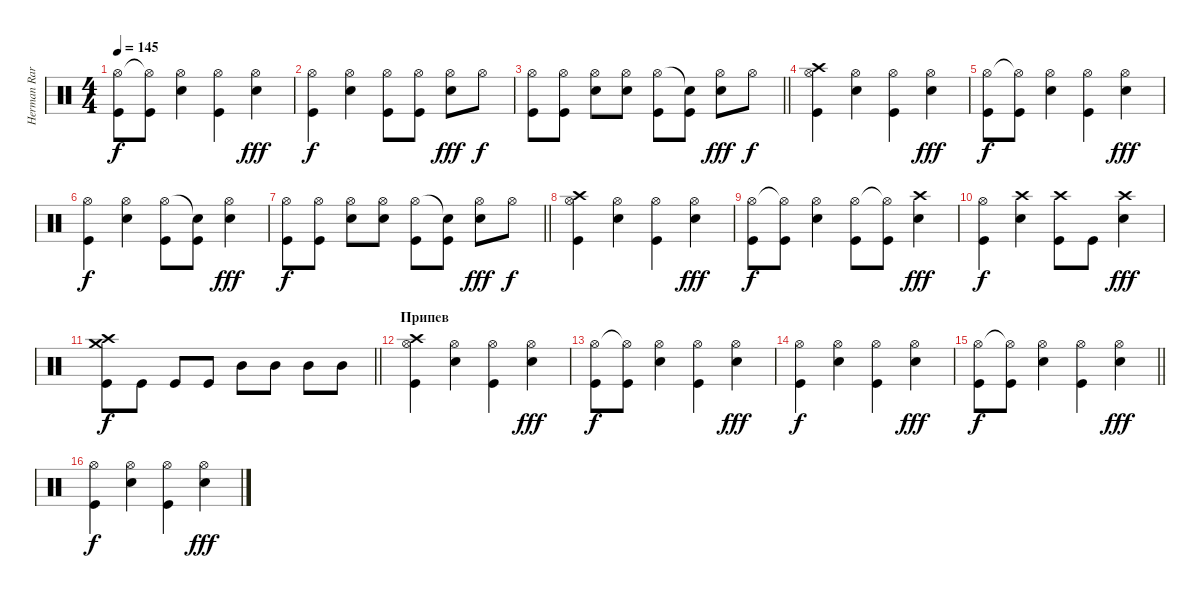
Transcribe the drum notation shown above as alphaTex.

\track ("Herman Rarebell" "Herman Rar") {instrument percussion}
\staff {score}
\articulation defaults
\ts (4 4)
\tempo 145
\clef neutral
\ks c
("Hi-Hat (open)" "Kick (hit)").8{dy f} ("Hi-Hat (open)"{t} "Kick (hit)").8 ("Hi-Hat (open)" "Snare (hit) 2").4 ("Hi-Hat (open)" "Kick (hit)").4 ("Hi-Hat (open)" "Snare (hit) 2").4{dy fff} |
("Hi-Hat (open)" "Kick (hit)").4{dy f} ("Hi-Hat (open)" "Snare (hit) 2").4 ("Hi-Hat (open)" "Kick (hit)").8 ("Hi-Hat (open)" "Kick (hit)").8 ("Hi-Hat (open)" "Snare (hit) 2").8{dy fff} "Hi-Hat (open)".8{dy f} |
\barLineRight lightlight
("Hi-Hat (open)" "Kick (hit)").8 ("Hi-Hat (open)" "Kick (hit)").8 ("Hi-Hat (open)" "Snare (hit) 2").8 ("Hi-Hat (open)" "Snare (hit) 2").8 ("Hi-Hat (open)" "Kick (hit)").8 ("Snare (hit)"{t} "Kick (hit)").8 ("Hi-Hat (open)" "Snare (hit) 2").8{dy fff} "Hi-Hat (open)".8{dy f} |
("Hi-Hat (open)" "Crash high (hit)" "Kick (hit)").4 ("Hi-Hat (open)" "Snare (hit) 2").4 ("Hi-Hat (open)" "Kick (hit)").4 ("Hi-Hat (open)" "Snare (hit) 2").4{dy fff} |
("Hi-Hat (open)" "Kick (hit)").8{dy f} ("Hi-Hat (open)"{t} "Kick (hit)").8 ("Hi-Hat (open)" "Snare (hit) 2").4 ("Hi-Hat (open)" "Kick (hit)").4 ("Hi-Hat (open)" "Snare (hit) 2").4{dy fff} |
("Hi-Hat (open)" "Kick (hit)").4{dy f} ("Hi-Hat (open)" "Snare (hit) 2").4 ("Hi-Hat (open)" "Kick (hit)").8 ("Snare (hit)"{t} "Kick (hit)").8 ("Hi-Hat (open)" "Snare (hit) 2").4{dy fff} |
\barLineRight lightlight
("Hi-Hat (open)" "Kick (hit)").8{dy f} ("Hi-Hat (open)" "Kick (hit)").8 ("Hi-Hat (open)" "Snare (hit) 2").8 ("Hi-Hat (open)" "Snare (hit) 2").8 ("Hi-Hat (open)" "Kick (hit)").8 ("Snare (hit)"{t} "Kick (hit)").8 ("Hi-Hat (open)" "Snare (hit) 2").8{dy fff} "Hi-Hat (open)".8{dy f} |
("Hi-Hat (open)" "Crash high (hit)" "Kick (hit)").4 ("Hi-Hat (open)" "Snare (hit) 2").4 ("Hi-Hat (open)" "Kick (hit)").4 ("Hi-Hat (open)" "Snare (hit) 2").4{dy fff} |
("Hi-Hat (open)" "Kick (hit)").8{dy f} ("Hi-Hat (open)"{t} "Kick (hit)").8 ("Hi-Hat (open)" "Snare (hit) 2").4 ("Hi-Hat (open)" "Kick (hit)").8 ("Hi-Hat (open)"{t} "Kick (hit)").8 ("Crash high (hit)" "Snare (hit) 2").4{dy fff} |
("Hi-Hat (open)" "Kick (hit)").4{dy f} ("Crash high (hit)" "Snare (hit) 2").4 ("Crash high (hit)" "Kick (hit)").8 "Kick (hit)".8 ("Crash high (hit)" "Snare (hit) 2").4{dy fff} |
\barLineRight lightlight
("Crash medium (hit)" "Crash high (hit)" "Kick (hit)").8{dy f} "Kick (hit)".8 "Kick (hit)".8 "Kick (hit)".8 "Mid Tom (hit)".8 "Mid Tom (hit)".8 "Mid Tom (hit)".8 "Mid Tom (hit)".8 |
\section ("" "Припев")
("Hi-Hat (open)" "Crash high (hit)" "Kick (hit)").4 ("Hi-Hat (open)" "Snare (hit) 2").4 ("Hi-Hat (open)" "Kick (hit)").4 ("Hi-Hat (open)" "Snare (hit) 2").4{dy fff} |
("Hi-Hat (open)" "Kick (hit)").8{dy f} ("Hi-Hat (open)"{t} "Kick (hit)").8 ("Hi-Hat (open)" "Snare (hit) 2").4 ("Hi-Hat (open)" "Kick (hit)").4 ("Hi-Hat (open)" "Snare (hit) 2").4{dy fff} |
("Hi-Hat (open)" "Kick (hit)").4{dy f} ("Hi-Hat (open)" "Snare (hit) 2").4 ("Hi-Hat (open)" "Kick (hit)").4 ("Hi-Hat (open)" "Snare (hit) 2").4{dy fff} |
\barLineRight lightlight
("Hi-Hat (open)" "Kick (hit)").8{dy f} ("Hi-Hat (open)"{t} "Kick (hit)").8 ("Hi-Hat (open)" "Snare (hit) 2").4 ("Hi-Hat (open)" "Kick (hit)").4 ("Hi-Hat (open)" "Snare (hit) 2").4{dy fff} |
("Hi-Hat (open)" "Kick (hit)").4{dy f} ("Hi-Hat (open)" "Snare (hit) 2").4 ("Hi-Hat (open)" "Kick (hit)").4 ("Hi-Hat (open)" "Snare (hit) 2").4{dy fff}
